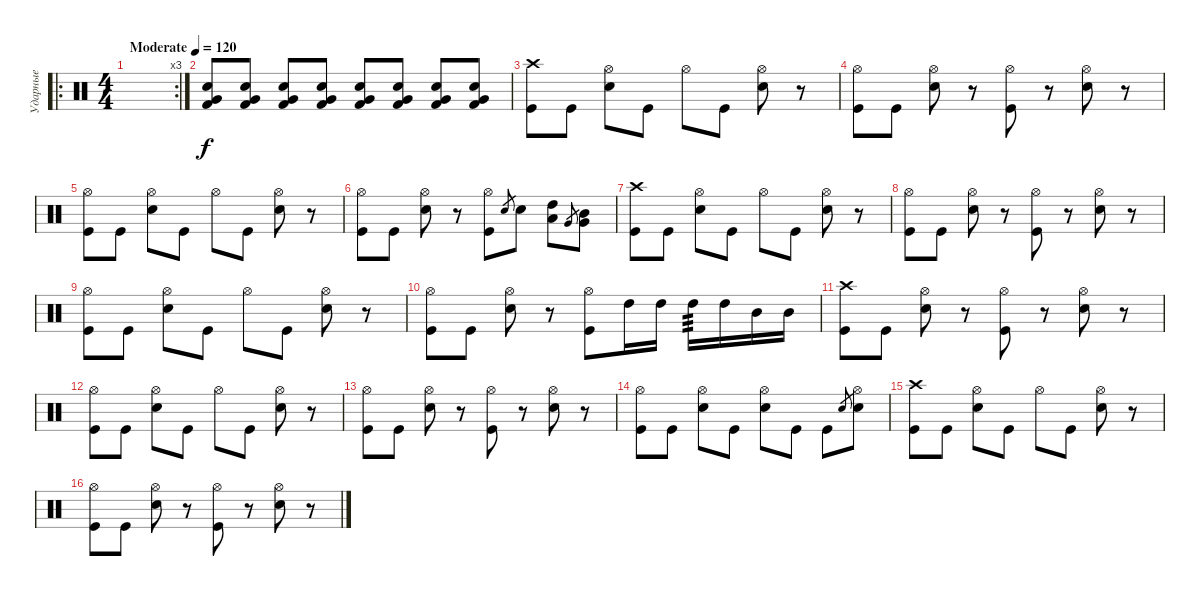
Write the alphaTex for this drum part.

\track ("Ударные" "Ударные") {instrument percussion}
\staff {score}
\articulation defaults
\ro
\rc 3
\ts (4 4)
\tempo (120 "Moderate")
\clef neutral
\ks c
|
("Kick (hit) 2" "Very Low Tom (hit)" "Snare (hit) 2").8{volume 3} ("Kick (hit) 2" "Very Low Tom (hit)" "Snare (hit) 2").8{volume 5} ("Kick (hit) 2" "Very Low Tom (hit)" "Snare (hit) 2").8{volume 7} ("Kick (hit) 2" "Very Low Tom (hit)" "Snare (hit) 2").8{volume 8} ("Kick (hit) 2" "Very Low Tom (hit)" "Snare (hit) 2").8{volume 10} ("Kick (hit) 2" "Very Low Tom (hit)" "Snare (hit) 2").8{volume 11} ("Kick (hit) 2" "Very Low Tom (hit)" "Snare (hit) 2").8{volume 13} ("Kick (hit) 2" "Very Low Tom (hit)" "Snare (hit) 2").8{volume 16} |
("Crash high (hit)" "Kick (hit)").8 "Kick (hit)".8 ("Hi-Hat (open)" "Snare (hit) 2").8 "Kick (hit)".8 "Hi-Hat (open)".8 "Kick (hit)".8 ("Hi-Hat (open)" "Snare (hit) 2").8 r.8 |
("Hi-Hat (open)" "Kick (hit)").8 "Kick (hit)".8 ("Hi-Hat (open)" "Snare (hit) 2").8 r.8 ("Hi-Hat (open)" "Kick (hit)").8 r.8 ("Hi-Hat (open)" "Snare (hit) 2").8 r.8 |
("Hi-Hat (open)" "Kick (hit)").8 "Kick (hit)".8 ("Hi-Hat (open)" "Snare (hit) 2").8 "Kick (hit)".8 "Hi-Hat (open)".8 "Kick (hit)".8 ("Hi-Hat (open)" "Snare (hit) 2").8 r.8 |
("Hi-Hat (open)" "Kick (hit)").8 "Kick (hit)".8 ("Hi-Hat (open)" "Snare (hit) 2").8 r.8 ("Hi-Hat (open)" "Kick (hit)").8 "Snare (hit) 2".8{gr} "Snare (hit) 2".8 ("High Tom (hit)" "Low Tom (hit)").8 "Very Low Tom (hit)".8{gr} ("Mid Tom (hit)" "Very Low Tom (hit)").8 |
("Crash high (hit)" "Kick (hit)").8 "Kick (hit)".8 ("Hi-Hat (open)" "Snare (hit) 2").8 "Kick (hit)".8 "Hi-Hat (open)".8 "Kick (hit)".8 ("Hi-Hat (open)" "Snare (hit) 2").8 r.8 |
("Hi-Hat (open)" "Kick (hit)").8 "Kick (hit)".8 ("Hi-Hat (open)" "Snare (hit) 2").8 r.8 ("Hi-Hat (open)" "Kick (hit)").8 r.8 ("Hi-Hat (open)" "Snare (hit) 2").8 r.8 |
("Hi-Hat (open)" "Kick (hit)").8 "Kick (hit)".8 ("Hi-Hat (open)" "Snare (hit) 2").8 "Kick (hit)".8 "Hi-Hat (open)".8 "Kick (hit)".8 ("Hi-Hat (open)" "Snare (hit) 2").8 r.8 |
("Hi-Hat (open)" "Kick (hit)").8 "Kick (hit)".8 ("Hi-Hat (open)" "Snare (hit) 2").8 r.8 ("Hi-Hat (open)" "Kick (hit)").8 "High Tom (hit)".16 "High Tom (hit)".16 "High Tom (hit)".16{tp 3} "High Tom (hit)".16 "Mid Tom (hit)".16 "Mid Tom (hit)".16 |
("Crash high (hit)" "Kick (hit)").8 "Kick (hit)".8 ("Hi-Hat (open)" "Snare (hit) 2").8 r.8 ("Hi-Hat (open)" "Kick (hit)").8 r.8 ("Hi-Hat (open)" "Snare (hit) 2").8 r.8 |
("Hi-Hat (open)" "Kick (hit)").8 "Kick (hit)".8 ("Hi-Hat (open)" "Snare (hit) 2").8 "Kick (hit)".8 "Hi-Hat (open)".8 "Kick (hit)".8 ("Hi-Hat (open)" "Snare (hit) 2").8 r.8 |
("Hi-Hat (open)" "Kick (hit)").8 "Kick (hit)".8 ("Hi-Hat (open)" "Snare (hit) 2").8 r.8 ("Hi-Hat (open)" "Kick (hit)").8 r.8 ("Hi-Hat (open)" "Snare (hit) 2").8 r.8 |
("Hi-Hat (open)" "Kick (hit)").8 "Kick (hit)".8 ("Hi-Hat (open)" "Snare (hit) 2").8 "Kick (hit)".8 ("Hi-Hat (open)" "Snare (hit) 2").8 "Kick (hit)".8 "Kick (hit)".8 "Snare (hit) 2".8{gr} ("Hi-Hat (open)" "Snare (hit) 2").8 |
("Crash high (hit)" "Kick (hit)").8 "Kick (hit)".8 ("Hi-Hat (open)" "Snare (hit) 2").8 "Kick (hit)".8 "Hi-Hat (open)".8 "Kick (hit)".8 ("Hi-Hat (open)" "Snare (hit) 2").8 r.8 |
("Hi-Hat (open)" "Kick (hit)").8 "Kick (hit)".8 ("Hi-Hat (open)" "Snare (hit) 2").8 r.8 ("Hi-Hat (open)" "Kick (hit)").8 r.8 ("Hi-Hat (open)" "Snare (hit) 2").8 r.8
